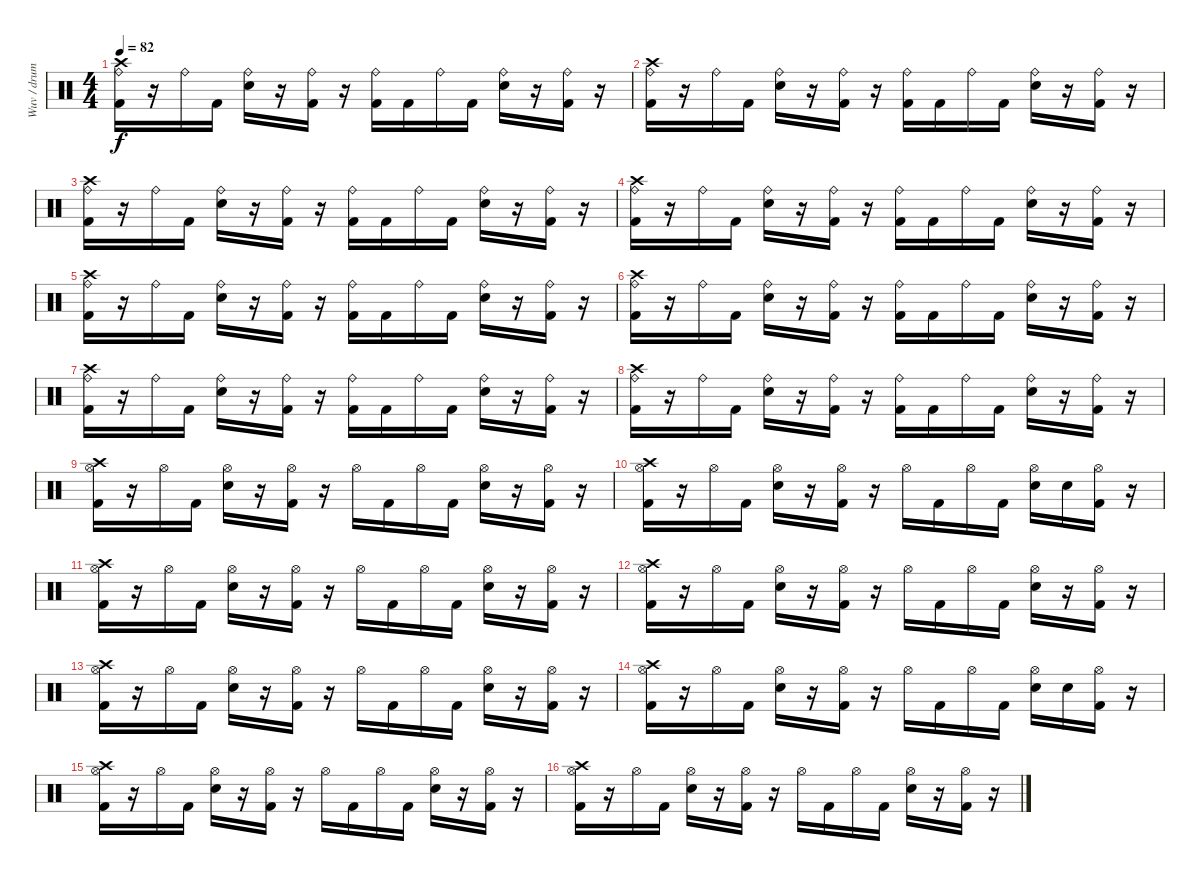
\track ("Wuv / drums" "Wuv / drum") {instrument percussion}
\staff {score}
\articulation defaults
\ts (4 4)
\tempo 82
\clef neutral
\ks c
("Crash high (hit)" "Ride (bell)" "Kick (hit) 2").16{dy f} r.16 "Ride (bell)".16 "Kick (hit) 2".16 ("Ride (bell)" "Snare (hit) 2").16 r.16 ("Ride (bell)" "Kick (hit) 2").16 r.16 ("Ride (bell)" "Kick (hit) 2").16 "Kick (hit) 2".16 "Ride (bell)".16 "Kick (hit) 2".16 ("Ride (bell)" "Snare (hit) 2").16 r.16 ("Ride (bell)" "Kick (hit) 2").16 r.16 |
("Crash high (hit)" "Ride (bell)" "Kick (hit) 2").16 r.16 "Ride (bell)".16 "Kick (hit) 2".16 ("Ride (bell)" "Snare (hit) 2").16 r.16 ("Ride (bell)" "Kick (hit) 2").16 r.16 ("Ride (bell)" "Kick (hit) 2").16 "Kick (hit) 2".16 "Ride (bell)".16 "Kick (hit) 2".16 ("Ride (bell)" "Snare (hit) 2").16 r.16 ("Ride (bell)" "Kick (hit) 2").16 r.16 |
("Crash high (hit)" "Ride (bell)" "Kick (hit) 2").16 r.16 "Ride (bell)".16 "Kick (hit) 2".16 ("Ride (bell)" "Snare (hit) 2").16 r.16 ("Ride (bell)" "Kick (hit) 2").16 r.16 ("Ride (bell)" "Kick (hit) 2").16 "Kick (hit) 2".16 "Ride (bell)".16 "Kick (hit) 2".16 ("Ride (bell)" "Snare (hit) 2").16 r.16 ("Ride (bell)" "Kick (hit) 2").16 r.16 |
("Crash high (hit)" "Ride (bell)" "Kick (hit) 2").16 r.16 "Ride (bell)".16 "Kick (hit) 2".16 ("Ride (bell)" "Snare (hit) 2").16 r.16 ("Ride (bell)" "Kick (hit) 2").16 r.16 ("Ride (bell)" "Kick (hit) 2").16 "Kick (hit) 2".16 "Ride (bell)".16 "Kick (hit) 2".16 ("Ride (bell)" "Snare (hit) 2").16 r.16 ("Ride (bell)" "Kick (hit) 2").16 r.16 |
("Crash high (hit)" "Ride (bell)" "Kick (hit) 2").16 r.16 "Ride (bell)".16 "Kick (hit) 2".16 ("Ride (bell)" "Snare (hit) 2").16 r.16 ("Ride (bell)" "Kick (hit) 2").16 r.16 ("Ride (bell)" "Kick (hit) 2").16 "Kick (hit) 2".16 "Ride (bell)".16 "Kick (hit) 2".16 ("Ride (bell)" "Snare (hit) 2").16 r.16 ("Ride (bell)" "Kick (hit) 2").16 r.16 |
("Crash high (hit)" "Ride (bell)" "Kick (hit) 2").16 r.16 "Ride (bell)".16 "Kick (hit) 2".16 ("Ride (bell)" "Snare (hit) 2").16 r.16 ("Ride (bell)" "Kick (hit) 2").16 r.16 ("Ride (bell)" "Kick (hit) 2").16 "Kick (hit) 2".16 "Ride (bell)".16 "Kick (hit) 2".16 ("Ride (bell)" "Snare (hit) 2").16 r.16 ("Ride (bell)" "Kick (hit) 2").16 r.16 |
("Crash high (hit)" "Ride (bell)" "Kick (hit) 2").16 r.16 "Ride (bell)".16 "Kick (hit) 2".16 ("Ride (bell)" "Snare (hit) 2").16 r.16 ("Ride (bell)" "Kick (hit) 2").16 r.16 ("Ride (bell)" "Kick (hit) 2").16 "Kick (hit) 2".16 "Ride (bell)".16 "Kick (hit) 2".16 ("Ride (bell)" "Snare (hit) 2").16 r.16 ("Ride (bell)" "Kick (hit) 2").16 r.16 |
("Crash high (hit)" "Ride (bell)" "Kick (hit) 2").16 r.16 "Ride (bell)".16 "Kick (hit) 2".16 ("Ride (bell)" "Snare (hit) 2").16 r.16 ("Ride (bell)" "Kick (hit) 2").16 r.16 ("Ride (bell)" "Kick (hit) 2").16 "Kick (hit) 2".16 "Ride (bell)".16 "Kick (hit) 2".16 ("Ride (bell)" "Snare (hit) 2").16 r.16 ("Ride (bell)" "Kick (hit) 2").16 r.16 |
("Crash high (hit)" "Hi-Hat (open)" "Kick (hit) 2").16 r.16 "Hi-Hat (open)".16 "Kick (hit) 2".16 ("Hi-Hat (open)" "Snare (hit) 2").16 r.16 ("Hi-Hat (open)" "Kick (hit) 2").16 r.16 "Hi-Hat (open)".16 "Kick (hit) 2".16 "Hi-Hat (open)".16 "Kick (hit) 2".16 ("Hi-Hat (open)" "Snare (hit) 2").16 r.16 ("Hi-Hat (open)" "Kick (hit) 2").16 r.16 |
("Crash high (hit)" "Hi-Hat (open)" "Kick (hit) 2").16 r.16 "Hi-Hat (open)".16 "Kick (hit) 2".16 ("Hi-Hat (open)" "Snare (hit) 2").16 r.16 ("Hi-Hat (open)" "Kick (hit) 2").16 r.16 "Hi-Hat (open)".16 "Kick (hit) 2".16 "Hi-Hat (open)".16 "Kick (hit) 2".16 ("Hi-Hat (open)" "Snare (hit) 2").16 "Snare (hit) 2".16 ("Hi-Hat (open)" "Kick (hit) 2").16 r.16 |
("Crash high (hit)" "Hi-Hat (open)" "Kick (hit) 2").16 r.16 "Hi-Hat (open)".16 "Kick (hit) 2".16 ("Hi-Hat (open)" "Snare (hit) 2").16 r.16 ("Hi-Hat (open)" "Kick (hit) 2").16 r.16 "Hi-Hat (open)".16 "Kick (hit) 2".16 "Hi-Hat (open)".16 "Kick (hit) 2".16 ("Hi-Hat (open)" "Snare (hit) 2").16 r.16 ("Hi-Hat (open)" "Kick (hit) 2").16 r.16 |
("Crash high (hit)" "Hi-Hat (open)" "Kick (hit) 2").16 r.16 "Hi-Hat (open)".16 "Kick (hit) 2".16 ("Hi-Hat (open)" "Snare (hit) 2").16 r.16 ("Hi-Hat (open)" "Kick (hit) 2").16 r.16 "Hi-Hat (open)".16 "Kick (hit) 2".16 "Hi-Hat (open)".16 "Kick (hit) 2".16 ("Hi-Hat (open)" "Snare (hit) 2").16 r.16 ("Hi-Hat (open)" "Kick (hit) 2").16 r.16 |
("Crash high (hit)" "Hi-Hat (open)" "Kick (hit) 2").16 r.16 "Hi-Hat (open)".16 "Kick (hit) 2".16 ("Hi-Hat (open)" "Snare (hit) 2").16 r.16 ("Hi-Hat (open)" "Kick (hit) 2").16 r.16 "Hi-Hat (open)".16 "Kick (hit) 2".16 "Hi-Hat (open)".16 "Kick (hit) 2".16 ("Hi-Hat (open)" "Snare (hit) 2").16 r.16 ("Hi-Hat (open)" "Kick (hit) 2").16 r.16 |
("Crash high (hit)" "Hi-Hat (open)" "Kick (hit) 2").16 r.16 "Hi-Hat (open)".16 "Kick (hit) 2".16 ("Hi-Hat (open)" "Snare (hit) 2").16 r.16 ("Hi-Hat (open)" "Kick (hit) 2").16 r.16 "Hi-Hat (open)".16 "Kick (hit) 2".16 "Hi-Hat (open)".16 "Kick (hit) 2".16 ("Hi-Hat (open)" "Snare (hit) 2").16 "Snare (hit) 2".16 ("Hi-Hat (open)" "Kick (hit) 2").16 r.16 |
("Crash high (hit)" "Hi-Hat (open)" "Kick (hit) 2").16 r.16 "Hi-Hat (open)".16 "Kick (hit) 2".16 ("Hi-Hat (open)" "Snare (hit) 2").16 r.16 ("Hi-Hat (open)" "Kick (hit) 2").16 r.16 "Hi-Hat (open)".16 "Kick (hit) 2".16 "Hi-Hat (open)".16 "Kick (hit) 2".16 ("Hi-Hat (open)" "Snare (hit) 2").16 r.16 ("Hi-Hat (open)" "Kick (hit) 2").16 r.16 |
("Crash high (hit)" "Hi-Hat (open)" "Kick (hit) 2").16 r.16 "Hi-Hat (open)".16 "Kick (hit) 2".16 ("Hi-Hat (open)" "Snare (hit) 2").16 r.16 ("Hi-Hat (open)" "Kick (hit) 2").16 r.16 "Hi-Hat (open)".16 "Kick (hit) 2".16 "Hi-Hat (open)".16 "Kick (hit) 2".16 ("Hi-Hat (open)" "Snare (hit) 2").16 r.16 ("Hi-Hat (open)" "Kick (hit) 2").16 r.16
